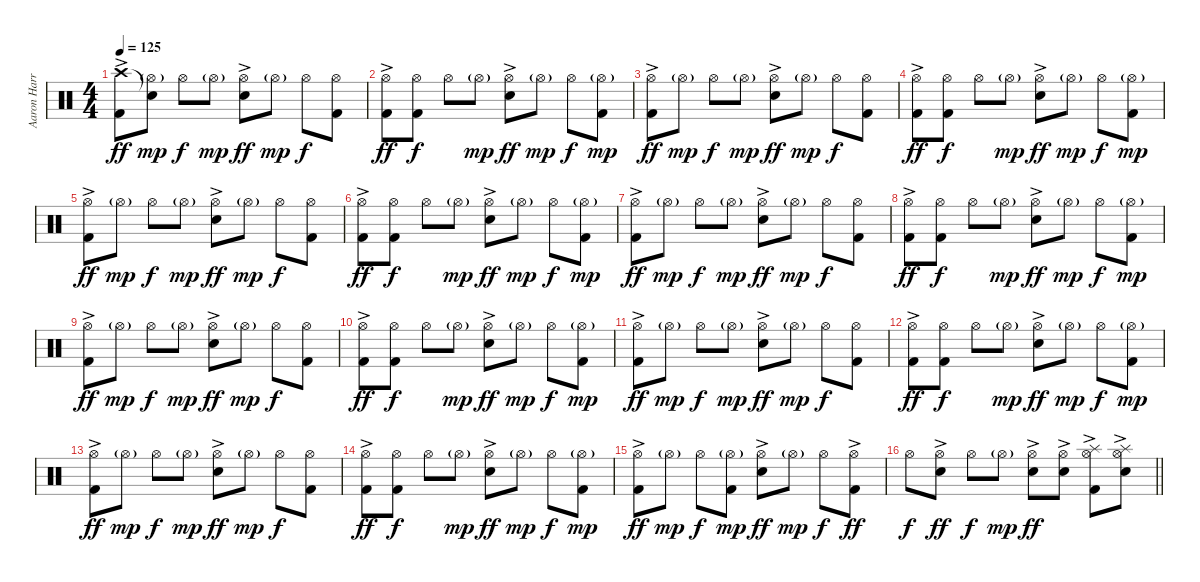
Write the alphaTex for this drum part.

\track ("Aaron Harris" "Aaron Harr") {instrument percussion}
\staff {score}
\articulation defaults
\ts (4 4)
\tempo 125
\clef neutral
\ks c
("Crash high (hit)" "Kick (hit) 2"{ac}).8{dy ff} ("Snare (hit)"{t} "Hi-Hat (open)"{g}).8{dy mp} "Hi-Hat (open)".8{dy f} "Hi-Hat (open)"{g}.8{dy mp} ("Hi-Hat (open)" "Snare (hit) 2"{ac}).8{dy ff} "Hi-Hat (open)"{g}.8{dy mp} "Hi-Hat (open)".8{dy f} ("Hi-Hat (open)" "Kick (hit) 2").8 |
("Hi-Hat (open)" "Kick (hit) 2"{ac}).8{dy ff} ("Hi-Hat (open)" "Kick (hit) 2").8{dy f} "Hi-Hat (open)".8 "Hi-Hat (open)"{g}.8{dy mp} ("Hi-Hat (open)" "Snare (hit) 2"{ac}).8{dy ff} "Hi-Hat (open)"{g}.8{dy mp} "Hi-Hat (open)".8{dy f} ("Hi-Hat (open)"{g} "Kick (hit) 2").8{dy mp} |
("Hi-Hat (open)" "Kick (hit) 2"{ac}).8{dy ff} "Hi-Hat (open)"{g}.8{dy mp} "Hi-Hat (open)".8{dy f} "Hi-Hat (open)"{g}.8{dy mp} ("Hi-Hat (open)" "Snare (hit) 2"{ac}).8{dy ff} "Hi-Hat (open)"{g}.8{dy mp} "Hi-Hat (open)".8{dy f} ("Hi-Hat (open)" "Kick (hit) 2").8 |
("Hi-Hat (open)" "Kick (hit) 2"{ac}).8{dy ff} ("Hi-Hat (open)" "Kick (hit) 2").8{dy f} "Hi-Hat (open)".8 "Hi-Hat (open)"{g}.8{dy mp} ("Hi-Hat (open)" "Snare (hit) 2"{ac}).8{dy ff} "Hi-Hat (open)"{g}.8{dy mp} "Hi-Hat (open)".8{dy f} ("Hi-Hat (open)"{g} "Kick (hit) 2").8{dy mp} |
("Hi-Hat (open)" "Kick (hit) 2"{ac}).8{dy ff} "Hi-Hat (open)"{g}.8{dy mp} "Hi-Hat (open)".8{dy f} "Hi-Hat (open)"{g}.8{dy mp} ("Hi-Hat (open)" "Snare (hit) 2"{ac}).8{dy ff} "Hi-Hat (open)"{g}.8{dy mp} "Hi-Hat (open)".8{dy f} ("Hi-Hat (open)" "Kick (hit) 2").8 |
("Hi-Hat (open)" "Kick (hit) 2"{ac}).8{dy ff} ("Hi-Hat (open)" "Kick (hit) 2").8{dy f} "Hi-Hat (open)".8 "Hi-Hat (open)"{g}.8{dy mp} ("Hi-Hat (open)" "Snare (hit) 2"{ac}).8{dy ff} "Hi-Hat (open)"{g}.8{dy mp} "Hi-Hat (open)".8{dy f} ("Hi-Hat (open)"{g} "Kick (hit) 2").8{dy mp} |
("Hi-Hat (open)" "Kick (hit) 2"{ac}).8{dy ff} "Hi-Hat (open)"{g}.8{dy mp} "Hi-Hat (open)".8{dy f} "Hi-Hat (open)"{g}.8{dy mp} ("Hi-Hat (open)" "Snare (hit) 2"{ac}).8{dy ff} "Hi-Hat (open)"{g}.8{dy mp} "Hi-Hat (open)".8{dy f} ("Hi-Hat (open)" "Kick (hit) 2").8 |
("Hi-Hat (open)" "Kick (hit) 2"{ac}).8{dy ff} ("Hi-Hat (open)" "Kick (hit) 2").8{dy f} "Hi-Hat (open)".8 "Hi-Hat (open)"{g}.8{dy mp} ("Hi-Hat (open)" "Snare (hit) 2"{ac}).8{dy ff} "Hi-Hat (open)"{g}.8{dy mp} "Hi-Hat (open)".8{dy f} ("Hi-Hat (open)"{g} "Kick (hit) 2").8{dy mp} |
("Hi-Hat (open)" "Kick (hit) 2"{ac}).8{dy ff} "Hi-Hat (open)"{g}.8{dy mp} "Hi-Hat (open)".8{dy f} "Hi-Hat (open)"{g}.8{dy mp} ("Hi-Hat (open)" "Snare (hit) 2"{ac}).8{dy ff} "Hi-Hat (open)"{g}.8{dy mp} "Hi-Hat (open)".8{dy f} ("Hi-Hat (open)" "Kick (hit) 2").8 |
("Hi-Hat (open)" "Kick (hit) 2"{ac}).8{dy ff} ("Hi-Hat (open)" "Kick (hit) 2").8{dy f} "Hi-Hat (open)".8 "Hi-Hat (open)"{g}.8{dy mp} ("Hi-Hat (open)" "Snare (hit) 2"{ac}).8{dy ff} "Hi-Hat (open)"{g}.8{dy mp} "Hi-Hat (open)".8{dy f} ("Hi-Hat (open)"{g} "Kick (hit) 2").8{dy mp} |
("Hi-Hat (open)" "Kick (hit) 2"{ac}).8{dy ff} "Hi-Hat (open)"{g}.8{dy mp} "Hi-Hat (open)".8{dy f} "Hi-Hat (open)"{g}.8{dy mp} ("Hi-Hat (open)" "Snare (hit) 2"{ac}).8{dy ff} "Hi-Hat (open)"{g}.8{dy mp} "Hi-Hat (open)".8{dy f} ("Hi-Hat (open)" "Kick (hit) 2").8 |
("Hi-Hat (open)" "Kick (hit) 2"{ac}).8{dy ff} ("Hi-Hat (open)" "Kick (hit) 2").8{dy f} "Hi-Hat (open)".8 "Hi-Hat (open)"{g}.8{dy mp} ("Hi-Hat (open)" "Snare (hit) 2"{ac}).8{dy ff} "Hi-Hat (open)"{g}.8{dy mp} "Hi-Hat (open)".8{dy f} ("Hi-Hat (open)"{g} "Kick (hit) 2").8{dy mp} |
("Hi-Hat (open)" "Kick (hit) 2"{ac}).8{dy ff} "Hi-Hat (open)"{g}.8{dy mp} "Hi-Hat (open)".8{dy f} "Hi-Hat (open)"{g}.8{dy mp} ("Hi-Hat (open)" "Snare (hit) 2"{ac}).8{dy ff} "Hi-Hat (open)"{g}.8{dy mp} "Hi-Hat (open)".8{dy f} ("Hi-Hat (open)" "Kick (hit) 2").8 |
("Hi-Hat (open)" "Kick (hit) 2"{ac}).8{dy ff} ("Hi-Hat (open)" "Kick (hit) 2").8{dy f} "Hi-Hat (open)".8 "Hi-Hat (open)"{g}.8{dy mp} ("Hi-Hat (open)" "Snare (hit) 2"{ac}).8{dy ff} "Hi-Hat (open)"{g}.8{dy mp} "Hi-Hat (open)".8{dy f} ("Hi-Hat (open)"{g} "Kick (hit) 2").8{dy mp} |
("Hi-Hat (open)" "Kick (hit) 2"{ac}).8{dy ff} "Hi-Hat (open)"{g}.8{dy mp} "Hi-Hat (open)".8{dy f} ("Hi-Hat (open)"{g} "Kick (hit) 2").8{dy mp} ("Hi-Hat (open)" "Snare (hit) 2"{ac}).8{dy ff} "Hi-Hat (open)"{g}.8{dy mp} "Hi-Hat (open)".8{dy f} ("Hi-Hat (open)" "Kick (hit) 2"{ac}).8{dy ff} |
\barLineRight lightlight "Hi-Hat (open)".8{dy f}
("Hi-Hat (open)" "Snare (hit) 2"{ac}).8{dy ff} "Hi-Hat (open)".8{dy f} "Hi-Hat (open)"{g}.8{dy mp} ("Hi-Hat (open)" "Snare (hit) 2"{ac}).8{dy ff} ("Hi-Hat (open)" "Snare (hit) 2"{ac}).8 ("Hi-Hat (open)" "Splash (hit)" "Kick (hit) 2"{ac}).8 ("Hi-Hat (open)" "Splash (hit)" "Snare (hit) 2"{ac}).8
